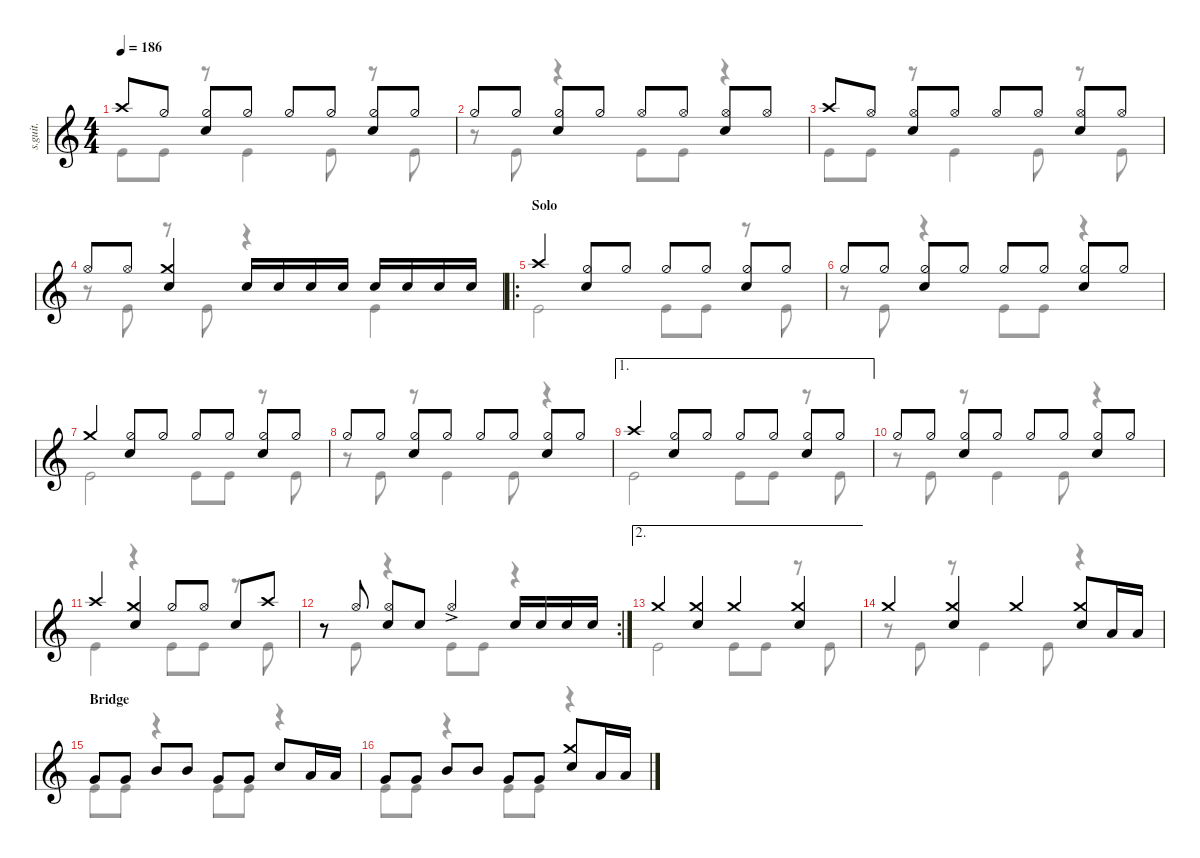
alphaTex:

\defaultSystemsLayout 4
\hideDynamics
\bracketExtendMode nobrackets
\track ("Tre Cool" "s.guit.") {instrument percussion}
\staff {score}
\articulation defaults
\voice
\ts (4 4)
\tempo 186
\clef g2
\ks c "Crash high (hit)".8{dy f} "Hi-Hat (half)".8
("Hi-Hat (half)" "Snare (hit) 2").8 "Hi-Hat (half)".8 "Hi-Hat (half)".8 "Hi-Hat (half)".8 ("Hi-Hat (half)" "Snare (hit) 2").8 "Hi-Hat (half)".8 |
"Hi-Hat (half)".8 "Hi-Hat (half)".8 ("Hi-Hat (half)" "Snare (hit) 2").8 "Hi-Hat (half)".8 "Hi-Hat (open)".8 "Hi-Hat (open)".8 ("Hi-Hat (open)" "Snare (hit) 2").8 "Hi-Hat (open)".8 |
"Crash high (hit)".8 "Hi-Hat (open)".8 ("Hi-Hat (open)" "Snare (hit) 2").8 "Hi-Hat (open)".8 "Hi-Hat (open)".8 "Hi-Hat (open)".8 ("Hi-Hat (open)" "Snare (hit) 2").8 "Hi-Hat (open)".8 |
"Hi-Hat (open)".8 "Hi-Hat (open)".8 ("Snare (hit) 2" "Crash medium (hit)").4 "Snare (hit) 2".16 "Snare (hit) 2".16 "Snare (hit) 2".16 "Snare (hit) 2".16 "Snare (hit) 2".16 "Snare (hit) 2".16 "Snare (hit) 2".16 "Snare (hit) 2".16 |
\ro
\section ("" "Solo")
"Crash high (hit)".4 ("Hi-Hat (half)" "Snare (hit) 2").8 "Hi-Hat (half)".8 "Hi-Hat (half)".8 "Hi-Hat (half)".8 ("Hi-Hat (half)" "Snare (hit) 2").8 "Hi-Hat (half)".8 |
"Hi-Hat (half)".8 "Hi-Hat (half)".8 ("Hi-Hat (half)" "Snare (hit) 2").8 "Hi-Hat (half)".8 "Hi-Hat (half)".8 "Hi-Hat (half)".8 ("Hi-Hat (half)" "Snare (hit) 2").8 "Hi-Hat (half)".8 |
"Crash medium (hit)".4 ("Hi-Hat (half)" "Snare (hit) 2").8 "Hi-Hat (half)".8 "Hi-Hat (half)".8 "Hi-Hat (half)".8 ("Hi-Hat (half)" "Snare (hit) 2").8 "Hi-Hat (half)".8 |
"Hi-Hat (half)".8 "Hi-Hat (half)".8 ("Hi-Hat (half)" "Snare (hit) 2").8 "Hi-Hat (half)".8 "Hi-Hat (half)".8 "Hi-Hat (half)".8 ("Hi-Hat (half)" "Snare (hit) 2").8 "Hi-Hat (half)".8 |
\ae 1 "Crash high (hit)".4
("Hi-Hat (half)" "Snare (hit) 2").8 "Hi-Hat (half)".8 "Hi-Hat (half)".8 "Hi-Hat (half)".8 ("Hi-Hat (half)" "Snare (hit) 2").8 "Hi-Hat (half)".8 |
"Hi-Hat (half)".8 "Hi-Hat (half)".8 ("Hi-Hat (half)" "Snare (hit) 2").8 "Hi-Hat (half)".8 "Hi-Hat (half)".8 "Hi-Hat (half)".8 ("Hi-Hat (half)" "Snare (hit) 2").8 "Hi-Hat (half)".8 |
"Crash high (hit)".4 ("Crash medium (hit)" "Snare (hit) 2").4 "Hi-Hat (half)".8 "Hi-Hat (open)".8 "Snare (hit) 2".8 "Crash high (hit)".8 |
\rc 2
r.8 "Hi-Hat (open)".8 ("Hi-Hat (open)" "Snare (hit) 2").8 "Snare (hit) 2".8 "Hi-Hat (open)"{ac}.4{dy p} "Snare (hit) 2".16{dy f} "Snare (hit) 2".16 "Snare (hit) 2".16 "Snare (hit) 2".16 |
\ae 2 "Crash medium (hit)".4
("Snare (hit) 2" "Crash medium (hit)").4 "Crash medium (hit)".4 ("Snare (hit) 2" "Crash medium (hit)").4 |
"Crash medium (hit)".4 ("Snare (hit) 2" "Crash medium (hit)").4 "Crash medium (hit)".4 ("Crash medium (hit)" "Snare (hit) 2").8 "Low Tom (hit)".16 "Low Tom (hit)".16 |
\section ("" "Bridge")
"Very Low Tom (hit)".8 "Very Low Tom (hit)".8 "Mid Tom (hit)".8 "Mid Tom (hit)".8 "Very Low Tom (hit)".8 "Very Low Tom (hit)".8 "Snare (hit) 2".8 "Low Tom (hit)".16 "Low Tom (hit)".16 |
"Very Low Tom (hit)".8 "Very Low Tom (hit)".8 "Mid Tom (hit)".8 "Mid Tom (hit)".8 "Very Low Tom (hit)".8 "Very Low Tom (hit)".8 ("Snare (hit) 2" "Crash medium (hit)").8 "Low Tom (hit)".16 "Low Tom (hit)".16
\voice
\clef g2
\ottava regular
\simile none
\ks c "Kick (hit)".8{dy f} "Kick (hit)".8
r.8 "Kick (hit)".4 "Kick (hit)".8 r.8 "Kick (hit)".8 |
r.8 "Kick (hit)".8 r.4 "Kick (hit)".8 "Kick (hit)".8 r.4 |
"Kick (hit)".8 "Kick (hit)".8 r.8 "Kick (hit)".4 "Kick (hit)".8 r.8 "Kick (hit)".8 |
r.8 "Kick (hit)".8 r.8 "Kick (hit)".8 r.4 "Kick (hit)".4 |
"Kick (hit)".2 "Kick (hit)".8 "Kick (hit)".8 r.8 "Kick (hit)".8 |
r.8 "Kick (hit)".8 r.4 "Kick (hit)".8 "Kick (hit)".8 r.4 |
"Kick (hit)".2 "Kick (hit)".8 "Kick (hit)".8 r.8 "Kick (hit)".8 |
r.8 "Kick (hit)".8 r.8 "Kick (hit)".4 "Kick (hit)".8 r.4 |
"Kick (hit)".2 "Kick (hit)".8 "Kick (hit)".8 r.8 "Kick (hit)".8 |
r.8 "Kick (hit)".8 r.8 "Kick (hit)".4 "Kick (hit)".8 r.4 |
"Kick (hit)".4 r.4 "Kick (hit)".8 "Kick (hit)".8 r.8 "Kick (hit)".8 |
r.8 "Kick (hit)".8 r.4 "Kick (hit)".8 "Kick (hit)".8 r.4 |
"Kick (hit)".2 "Kick (hit)".8 "Kick (hit)".8 r.8 "Kick (hit)".8 |
r.8 "Kick (hit)".8 r.8 "Kick (hit)".4 "Kick (hit)".8 r.4 |
"Kick (hit)".8 "Kick (hit)".8 r.4 "Kick (hit)".8 "Kick (hit)".8 r.4 |
"Kick (hit)".8 "Kick (hit)".8 r.4 "Kick (hit)".8 "Kick (hit)".8 r.4
